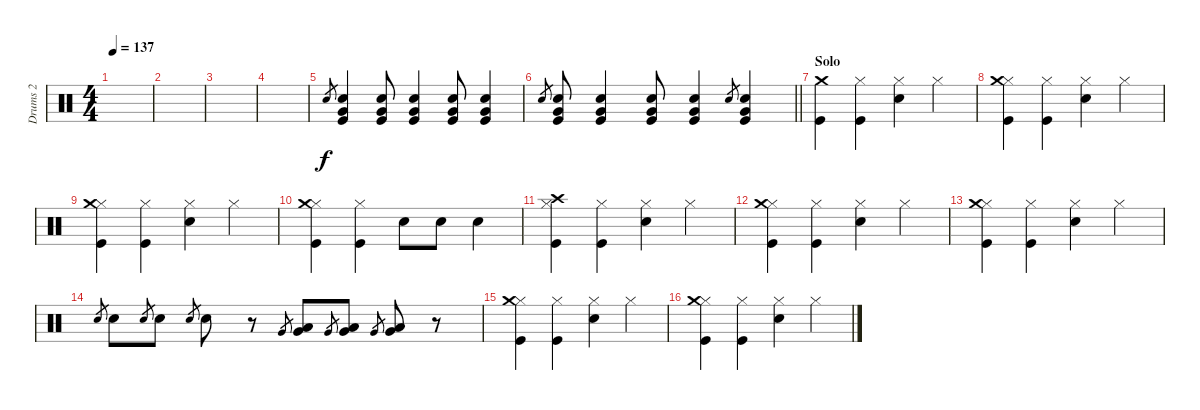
\track ("Drums 2" "Drums 2") {instrument percussion}
\staff {score}
\articulation defaults
\ts (4 4)
\tempo 137
\clef neutral
\ks c
|
|
|
|
"Snare (hit) 2".8{gr} ("Very Low Tom (hit)" "Snare (hit) 2" "Kick (hit)").4 ("Very Low Tom (hit)" "Snare (hit) 2" "Kick (hit)").8 ("Very Low Tom (hit)" "Snare (hit) 2" "Kick (hit)").4 ("Very Low Tom (hit)" "Snare (hit) 2" "Kick (hit)").8 ("Very Low Tom (hit)" "Snare (hit) 2" "Kick (hit)").4 |
\barLineRight lightlight "Snare (hit) 2".8{gr}
("Very Low Tom (hit)" "Snare (hit) 2" "Kick (hit)").8 ("Very Low Tom (hit)" "Snare (hit) 2" "Kick (hit)").4 ("Very Low Tom (hit)" "Snare (hit) 2" "Kick (hit)").8 ("Very Low Tom (hit)" "Snare (hit) 2" "Kick (hit)").4 "Snare (hit) 2".8{gr} ("Very Low Tom (hit)" "Snare (hit) 2" "Kick (hit)").4 |
\section ("" "Solo")
("Crash medium (hit)" "Kick (hit)").4 ("Hi-Hat (closed)" "Kick (hit)").4 ("Hi-Hat (closed)" "Snare (hit) 2").4 "Hi-Hat (closed)".4 |
("Hi-Hat (closed)" "Crash medium (hit)" "Kick (hit)").4 ("Hi-Hat (closed)" "Kick (hit)").4 ("Hi-Hat (closed)" "Snare (hit) 2").4 "Hi-Hat (closed)".4 |
("Hi-Hat (closed)" "Crash medium (hit)" "Kick (hit)").4 ("Hi-Hat (closed)" "Kick (hit)").4 ("Hi-Hat (closed)" "Snare (hit) 2").4 "Hi-Hat (closed)".4 |
("Hi-Hat (closed)" "Crash medium (hit)" "Kick (hit)").4 ("Hi-Hat (closed)" "Kick (hit)").4 "Snare (hit) 2".8 "Snare (hit) 2".8 "Snare (hit) 2".4 |
("Hi-Hat (closed)" "Crash high (hit)" "Kick (hit)").4 ("Hi-Hat (closed)" "Kick (hit)").4 ("Hi-Hat (closed)" "Snare (hit) 2").4 "Hi-Hat (closed)".4 |
("Hi-Hat (closed)" "Crash medium (hit)" "Kick (hit)").4 ("Hi-Hat (closed)" "Kick (hit)").4 ("Hi-Hat (closed)" "Snare (hit) 2").4 "Hi-Hat (closed)".4 |
("Hi-Hat (closed)" "Crash medium (hit)" "Kick (hit)").4 ("Hi-Hat (closed)" "Kick (hit)").4 ("Hi-Hat (closed)" "Snare (hit) 2").4 "Hi-Hat (closed)".4 |
"Snare (hit) 2".8{gr} "Snare (hit) 2".8 "Snare (hit) 2".8{gr} "Snare (hit) 2".8 "Snare (hit) 2".8{gr} "Snare (hit) 2".8 r.8 "Very Low Tom (hit)".8{gr} ("Very Low Tom (hit)" "Low Floor Tom (hit)").8 "Very Low Tom (hit)".8{gr} ("Very Low Tom (hit)" "Low Floor Tom (hit)").8 "Very Low Tom (hit)".8{gr} ("Very Low Tom (hit)" "Low Floor Tom (hit)").8 r.8 |
("Hi-Hat (closed)" "Crash medium (hit)" "Kick (hit)").4 ("Hi-Hat (closed)" "Kick (hit)").4 ("Hi-Hat (closed)" "Snare (hit) 2").4 "Hi-Hat (closed)".4 |
("Hi-Hat (closed)" "Crash medium (hit)" "Kick (hit)").4 ("Hi-Hat (closed)" "Kick (hit)").4 ("Hi-Hat (closed)" "Snare (hit) 2").4 "Hi-Hat (closed)".4
